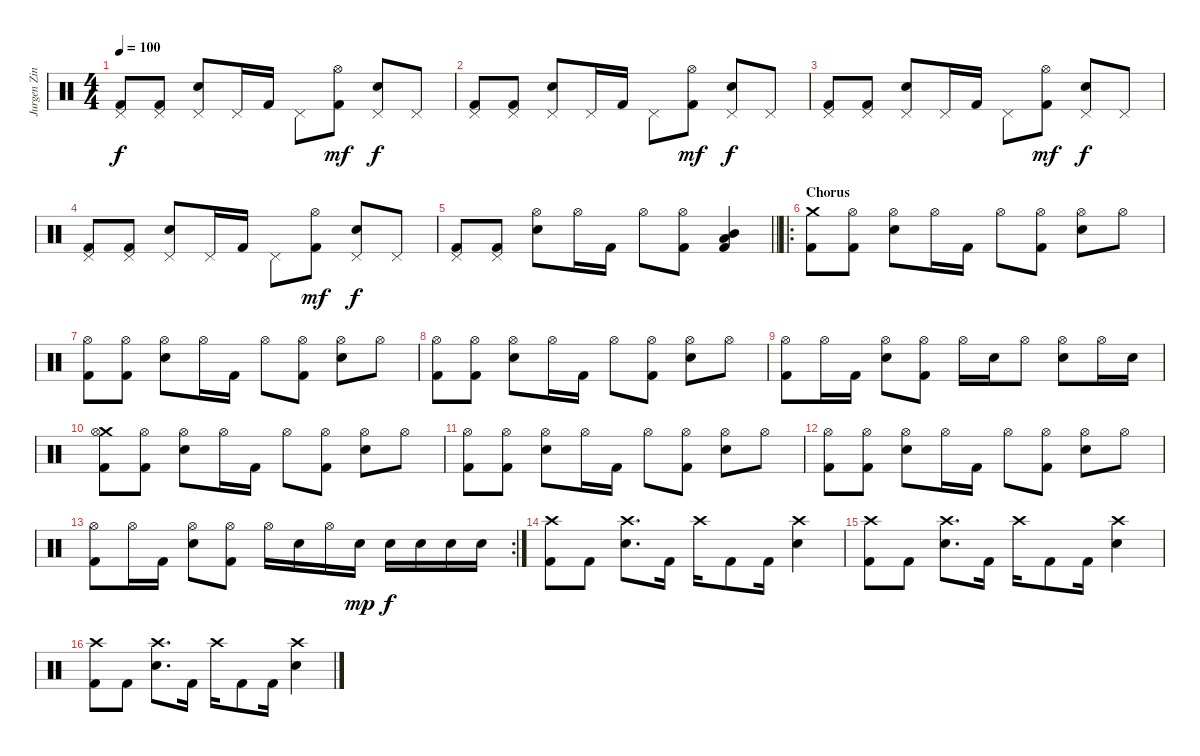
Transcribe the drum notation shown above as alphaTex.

\track ("Jurgen Zing" "Jurgen Zin") {instrument percussion}
\staff {score}
\articulation defaults
\ts (4 4)
\tempo 100
\clef neutral
\ks c
("Pedal Hi-Hat (hit)" "Kick (hit) 2").8{dy f} ("Pedal Hi-Hat (hit)" "Kick (hit) 2").8 ("Pedal Hi-Hat (hit)" "Electric Snare (hit)").8 "Pedal Hi-Hat (hit)".16 "Kick (hit) 2".16 "Pedal Hi-Hat (hit)".8 ("Hi-Hat (open)" "Kick (hit) 2").8{dy mf} ("Pedal Hi-Hat (hit)" "Electric Snare (hit)").8{dy f} "Pedal Hi-Hat (hit)".8 |
("Pedal Hi-Hat (hit)" "Kick (hit) 2").8 ("Pedal Hi-Hat (hit)" "Kick (hit) 2").8 ("Pedal Hi-Hat (hit)" "Electric Snare (hit)").8 "Pedal Hi-Hat (hit)".16 "Kick (hit) 2".16 "Pedal Hi-Hat (hit)".8 ("Hi-Hat (open)" "Kick (hit) 2").8{dy mf} ("Pedal Hi-Hat (hit)" "Electric Snare (hit)").8{dy f} "Pedal Hi-Hat (hit)".8 |
("Pedal Hi-Hat (hit)" "Kick (hit) 2").8 ("Pedal Hi-Hat (hit)" "Kick (hit) 2").8 ("Pedal Hi-Hat (hit)" "Electric Snare (hit)").8 "Pedal Hi-Hat (hit)".16 "Kick (hit) 2".16 "Pedal Hi-Hat (hit)".8 ("Hi-Hat (open)" "Kick (hit) 2").8{dy mf} ("Pedal Hi-Hat (hit)" "Electric Snare (hit)").8{dy f} "Pedal Hi-Hat (hit)".8 |
("Pedal Hi-Hat (hit)" "Kick (hit) 2").8 ("Pedal Hi-Hat (hit)" "Kick (hit) 2").8 ("Pedal Hi-Hat (hit)" "Electric Snare (hit)").8 "Pedal Hi-Hat (hit)".16 "Kick (hit) 2".16 "Pedal Hi-Hat (hit)".8 ("Hi-Hat (open)" "Kick (hit) 2").8{dy mf} ("Pedal Hi-Hat (hit)" "Electric Snare (hit)").8{dy f} "Pedal Hi-Hat (hit)".8 |
\barLineRight lightlight
("Pedal Hi-Hat (hit)" "Kick (hit) 2").8 ("Pedal Hi-Hat (hit)" "Kick (hit) 2").8 ("Hi-Hat (open)" "Electric Snare (hit)").8 "Hi-Hat (open)".16 "Kick (hit) 2".16 "Hi-Hat (open)".8 ("Hi-Hat (open)" "Kick (hit) 2").8 ("Low Tom (hit)" "Mid Tom (hit)" "Kick (hit) 2").4 |
\ro
\section ("" "Chorus")
("Crash medium (hit)" "Kick (hit) 2").8 ("Hi-Hat (open)" "Kick (hit) 2").8 ("Hi-Hat (open)" "Electric Snare (hit)").8 "Hi-Hat (open)".16 "Kick (hit) 2".16 "Hi-Hat (open)".8 ("Hi-Hat (open)" "Kick (hit) 2").8 ("Hi-Hat (open)" "Electric Snare (hit)").8 "Hi-Hat (open)".8 |
("Hi-Hat (open)" "Kick (hit) 2").8 ("Hi-Hat (open)" "Kick (hit) 2").8 ("Hi-Hat (open)" "Electric Snare (hit)").8 "Hi-Hat (open)".16 "Kick (hit) 2".16 "Hi-Hat (open)".8 ("Hi-Hat (open)" "Kick (hit) 2").8 ("Hi-Hat (open)" "Electric Snare (hit)").8 "Hi-Hat (open)".8 |
("Hi-Hat (open)" "Kick (hit) 2").8 ("Hi-Hat (open)" "Kick (hit) 2").8 ("Hi-Hat (open)" "Electric Snare (hit)").8 "Hi-Hat (open)".16 "Kick (hit) 2".16 "Hi-Hat (open)".8 ("Hi-Hat (open)" "Kick (hit) 2").8 ("Hi-Hat (open)" "Electric Snare (hit)").8 "Hi-Hat (open)".8 |
("Hi-Hat (open)" "Kick (hit) 2").8 "Hi-Hat (open)".16 "Kick (hit) 2".16 ("Hi-Hat (open)" "Electric Snare (hit)").8 ("Hi-Hat (open)" "Kick (hit) 2").8 "Hi-Hat (open)".16 "Electric Snare (hit)".16 "Hi-Hat (open)".8 ("Hi-Hat (open)" "Electric Snare (hit)").8 "Hi-Hat (open)".16 "Electric Snare (hit)".16 |
("Crash medium (hit)" "Hi-Hat (open)" "Kick (hit) 2").8 ("Hi-Hat (open)" "Kick (hit) 2").8 ("Hi-Hat (open)" "Electric Snare (hit)").8 "Hi-Hat (open)".16 "Kick (hit) 2".16 "Hi-Hat (open)".8 ("Hi-Hat (open)" "Kick (hit) 2").8 ("Hi-Hat (open)" "Electric Snare (hit)").8 "Hi-Hat (open)".8 |
("Hi-Hat (open)" "Kick (hit) 2").8 ("Hi-Hat (open)" "Kick (hit) 2").8 ("Hi-Hat (open)" "Electric Snare (hit)").8 "Hi-Hat (open)".16 "Kick (hit) 2".16 "Hi-Hat (open)".8 ("Hi-Hat (open)" "Kick (hit) 2").8 ("Hi-Hat (open)" "Electric Snare (hit)").8 "Hi-Hat (open)".8 |
("Hi-Hat (open)" "Kick (hit) 2").8 ("Hi-Hat (open)" "Kick (hit) 2").8 ("Hi-Hat (open)" "Electric Snare (hit)").8 "Hi-Hat (open)".16 "Kick (hit) 2".16 "Hi-Hat (open)".8 ("Hi-Hat (open)" "Kick (hit) 2").8 ("Hi-Hat (open)" "Electric Snare (hit)").8 "Hi-Hat (open)".8 |
\rc 2
("Hi-Hat (open)" "Kick (hit) 2").8 "Hi-Hat (open)".16 "Kick (hit) 2".16 ("Hi-Hat (open)" "Electric Snare (hit)").8 ("Hi-Hat (open)" "Kick (hit) 2").8 "Hi-Hat (open)".16 "Electric Snare (hit)".16 "Hi-Hat (open)".16 "Electric Snare (hit)".16{dy mp} "Electric Snare (hit)".16{dy f} "Electric Snare (hit)".16 "Electric Snare (hit)".16 "Electric Snare (hit)".16 |
("Crash high (hit)" "Kick (hit) 2").8 "Kick (hit) 2".8 ("Crash high (hit)" "Electric Snare (hit)").8{d} "Kick (hit) 2".16 "Crash high (hit)".16 "Kick (hit) 2".8 "Kick (hit) 2".16 ("Crash high (hit)" "Electric Snare (hit)").4 |
("Crash high (hit)" "Kick (hit) 2").8 "Kick (hit) 2".8 ("Crash high (hit)" "Electric Snare (hit)").8{d} "Kick (hit) 2".16 "Crash high (hit)".16 "Kick (hit) 2".8 "Kick (hit) 2".16 ("Crash high (hit)" "Electric Snare (hit)").4 |
("Crash high (hit)" "Kick (hit) 2").8 "Kick (hit) 2".8 ("Crash high (hit)" "Electric Snare (hit)").8{d} "Kick (hit) 2".16 "Crash high (hit)".16 "Kick (hit) 2".8 "Kick (hit) 2".16 ("Crash high (hit)" "Electric Snare (hit)").4
